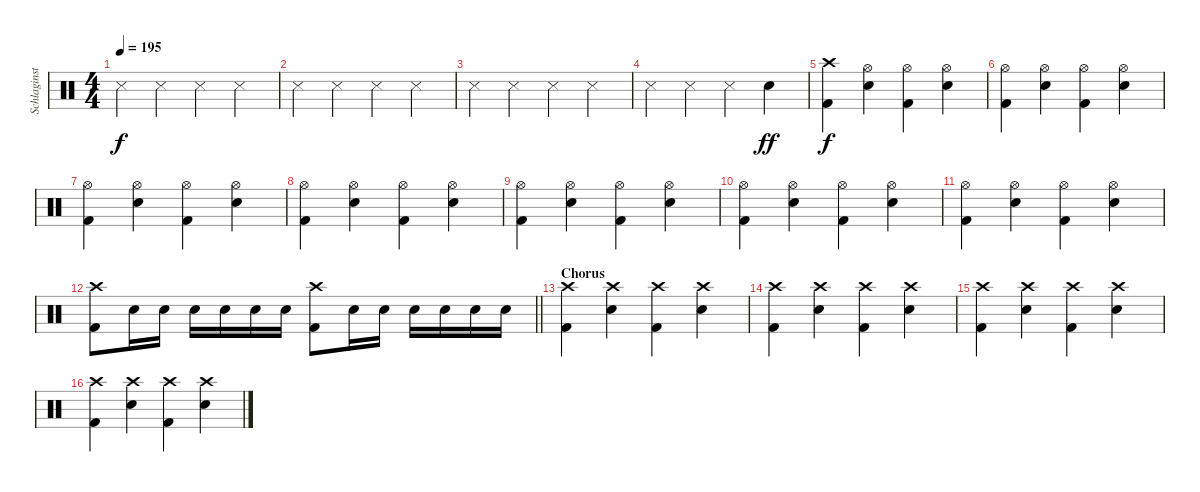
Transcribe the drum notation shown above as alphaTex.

\track ("Schlaginstrumente - Auswahl" "Schlaginst") {instrument percussion}
\staff {score}
\articulation defaults
\ts (4 4)
\tempo 195
\clef neutral
\ks c "Snare (side stick) 3".4{dy f} "Snare (side stick) 3".4 "Snare (side stick) 3".4 "Snare (side stick) 3".4
|
"Snare (side stick) 3".4 "Snare (side stick) 3".4 "Snare (side stick) 3".4 "Snare (side stick) 3".4 |
"Snare (side stick) 3".4 "Snare (side stick) 3".4 "Snare (side stick) 3".4 "Snare (side stick) 3".4 |
"Snare (side stick) 3".4 "Snare (side stick) 3".4 "Snare (side stick) 3".4 "Snare (hit) 2".4{dy ff} |
("Kick (hit) 2" "Crash high (hit)").4{dy f} ("Hi-Hat (open)" "Snare (hit) 2").4 ("Hi-Hat (open)" "Kick (hit) 2").4 ("Hi-Hat (open)" "Snare (hit) 2").4 |
("Hi-Hat (open)" "Kick (hit) 2").4 ("Hi-Hat (open)" "Snare (hit) 2").4 ("Hi-Hat (open)" "Kick (hit) 2").4 ("Hi-Hat (open)" "Snare (hit) 2").4 |
("Hi-Hat (open)" "Kick (hit) 2").4 ("Hi-Hat (open)" "Snare (hit) 2").4 ("Hi-Hat (open)" "Kick (hit) 2").4 ("Hi-Hat (open)" "Snare (hit) 2").4 |
("Hi-Hat (open)" "Kick (hit) 2").4 ("Hi-Hat (open)" "Snare (hit) 2").4 ("Hi-Hat (open)" "Kick (hit) 2").4 ("Hi-Hat (open)" "Snare (hit) 2").4 |
("Hi-Hat (open)" "Kick (hit) 2").4 ("Hi-Hat (open)" "Snare (hit) 2").4 ("Hi-Hat (open)" "Kick (hit) 2").4 ("Hi-Hat (open)" "Snare (hit) 2").4 |
("Hi-Hat (open)" "Kick (hit) 2").4 ("Hi-Hat (open)" "Snare (hit) 2").4 ("Hi-Hat (open)" "Kick (hit) 2").4 ("Hi-Hat (open)" "Snare (hit) 2").4 |
("Hi-Hat (open)" "Kick (hit) 2").4 ("Hi-Hat (open)" "Snare (hit) 2").4 ("Hi-Hat (open)" "Kick (hit) 2").4 ("Hi-Hat (open)" "Snare (hit) 2").4 |
\barLineRight lightlight
("Crash high (hit)" "Kick (hit) 2").8 "Snare (hit) 2".16 "Snare (hit) 2".16 "Snare (hit) 2".16 "Snare (hit) 2".16 "Snare (hit) 2".16 "Snare (hit) 2".16 ("Crash high (hit)" "Kick (hit) 2").8 "Snare (hit) 2".16 "Snare (hit) 2".16 "Snare (hit) 2".16 "Snare (hit) 2".16 "Snare (hit) 2".16 "Snare (hit) 2".16 |
\section ("" "Chorus")
("Crash high (hit)" "Kick (hit) 2").4 ("Crash high (hit)" "Snare (hit) 2").4 ("Crash high (hit)" "Kick (hit) 2").4 ("Crash high (hit)" "Snare (hit) 2").4 |
("Crash high (hit)" "Kick (hit) 2").4 ("Crash high (hit)" "Snare (hit) 2").4 ("Crash high (hit)" "Kick (hit) 2").4 ("Crash high (hit)" "Snare (hit) 2").4 |
("Crash high (hit)" "Kick (hit) 2").4 ("Crash high (hit)" "Snare (hit) 2").4 ("Crash high (hit)" "Kick (hit) 2").4 ("Crash high (hit)" "Snare (hit) 2").4 |
("Crash high (hit)" "Kick (hit) 2").4 ("Crash high (hit)" "Snare (hit) 2").4 ("Crash high (hit)" "Kick (hit) 2").4 ("Crash high (hit)" "Snare (hit) 2").4
